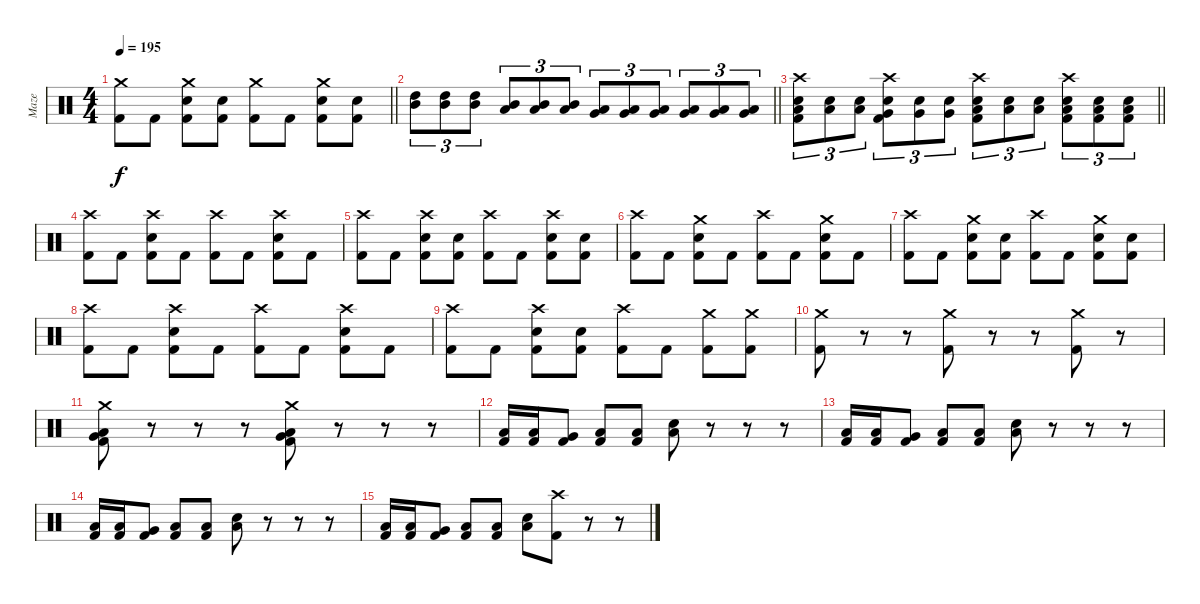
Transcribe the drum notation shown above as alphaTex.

\track ("Maze" "Maze") {instrument percussion}
\staff
\articulation defaults
\ts (4 4)
\tempo 195
\clef neutral
\barLineRight lightlight
\ks c
("Crash medium (hit)" "Kick (hit) 2").8{dy f} "Kick (hit) 2".8 ("Snare (hit) 2" "Crash medium (hit)" "Kick (hit) 2").8 ("Snare (hit) 2" "Kick (hit) 2").8 ("Crash medium (hit)" "Kick (hit) 2").8 "Kick (hit) 2".8 ("Snare (hit) 2" "Crash medium (hit)" "Kick (hit) 2").8 ("Snare (hit) 2" "Kick (hit) 2").8 |
\barLineRight lightlight
("High Tom (hit)" "Mid Tom (hit)").8{tu (3 2)} ("High Tom (hit)" "Mid Tom (hit)").8{tu (3 2)} ("High Tom (hit)" "Mid Tom (hit)").8{tu (3 2)} ("Mid Tom (hit)" "Low Tom (hit)").8{tu (3 2)} ("Mid Tom (hit)" "Low Tom (hit)").8{tu (3 2)} ("Mid Tom (hit)" "Low Tom (hit)").8{tu (3 2)} ("Low Tom (hit)" "Very Low Tom (hit)").8{tu (3 2)} ("Low Tom (hit)" "Very Low Tom (hit)").8{tu (3 2)} ("Low Tom (hit)" "Very Low Tom (hit)").8{tu (3 2)} ("Very Low Tom (hit)" "Low Floor Tom (hit)").8{tu (3 2)} ("Very Low Tom (hit)" "Low Floor Tom (hit)").8{tu (3 2)} ("Very Low Tom (hit)" "Low Floor Tom (hit)").8{tu (3 2)} |
\barLineRight lightlight
("Crash high (hit)" "Low Tom (hit)" "Snare (hit) 2" "Kick (hit) 2").8{tu (3 2)} ("Low Tom (hit)" "Snare (hit) 2").8{tu (3 2)} ("Low Tom (hit)" "Snare (hit) 2").8{tu (3 2)} ("Crash high (hit)" "Very Low Tom (hit)" "Snare (hit) 2" "Kick (hit) 2").8{tu (3 2)} ("Very Low Tom (hit)" "Snare (hit) 2").8{tu (3 2)} ("Very Low Tom (hit)" "Snare (hit) 2").8{tu (3 2)} ("Crash high (hit)" "Low Floor Tom (hit)" "Snare (hit) 2" "Kick (hit) 2").8{tu (3 2)} ("Low Floor Tom (hit)" "Snare (hit) 2").8{tu (3 2)} ("Low Floor Tom (hit)" "Snare (hit) 2").8{tu (3 2)} ("Crash high (hit)" "Low Floor Tom (hit)" "Snare (hit) 2" "Kick (hit) 2").8{tu (3 2)} ("Low Floor Tom (hit)" "Snare (hit) 2" "Kick (hit) 2").8{tu (3 2)} ("Low Floor Tom (hit)" "Snare (hit) 2" "Kick (hit) 2").8{tu (3 2)} |
("Crash high (hit)" "Kick (hit) 2").8 "Kick (hit) 2".8 ("Snare (hit) 2" "Crash high (hit)" "Kick (hit) 2").8 "Kick (hit) 2".8 ("Crash high (hit)" "Kick (hit) 2").8 "Kick (hit) 2".8 ("Snare (hit) 2" "Crash high (hit)" "Kick (hit) 2").8 "Kick (hit) 2".8 |
("Crash high (hit)" "Kick (hit) 2").8 "Kick (hit) 2".8 ("Snare (hit) 2" "Crash high (hit)" "Kick (hit) 2").8 ("Snare (hit) 2" "Kick (hit) 2").8 ("Crash high (hit)" "Kick (hit) 2").8 "Kick (hit) 2".8 ("Snare (hit) 2" "Crash high (hit)" "Kick (hit) 2").8 ("Snare (hit) 2" "Kick (hit) 2").8 |
("Crash high (hit)" "Kick (hit) 2").8 "Kick (hit) 2".8 ("Snare (hit) 2" "Crash medium (hit)" "Kick (hit) 2").8 "Kick (hit) 2".8 ("Crash high (hit)" "Kick (hit) 2").8 "Kick (hit) 2".8 ("Snare (hit) 2" "Crash medium (hit)" "Kick (hit) 2").8 "Kick (hit) 2".8 |
("Crash high (hit)" "Kick (hit) 2").8 "Kick (hit) 2".8 ("Snare (hit) 2" "Crash medium (hit)" "Kick (hit) 2").8 ("Snare (hit) 2" "Kick (hit) 2").8 ("Crash high (hit)" "Kick (hit) 2").8 "Kick (hit) 2".8 ("Snare (hit) 2" "Crash medium (hit)" "Kick (hit) 2").8 ("Snare (hit) 2" "Kick (hit) 2").8 |
("Crash high (hit)" "Kick (hit) 2").8 "Kick (hit) 2".8 ("Snare (hit) 2" "Crash high (hit)" "Kick (hit) 2").8 "Kick (hit) 2".8 ("Crash high (hit)" "Kick (hit) 2").8 "Kick (hit) 2".8 ("Snare (hit) 2" "Crash high (hit)" "Kick (hit) 2").8 "Kick (hit) 2".8 |
("Crash high (hit)" "Kick (hit) 2").8 "Kick (hit) 2".8 ("Snare (hit) 2" "Crash high (hit)" "Kick (hit) 2").8 ("Snare (hit) 2" "Kick (hit) 2").8 ("Crash high (hit)" "Kick (hit) 2").8 "Kick (hit) 2".8 ("Crash medium (hit)" "Kick (hit) 2").8 ("Crash medium (hit)" "Kick (hit) 2").8 |
("Crash medium (hit)" "Kick (hit) 2").8 r.8 r.8 ("Crash medium (hit)" "Kick (hit) 2").8 r.8 r.8 ("Crash medium (hit)" "Kick (hit) 2").8 r.8 |
("Crash medium (hit)" "Very Low Tom (hit)" "Low Floor Tom (hit)" "Kick (hit) 2").8 r.8 r.8 r.8 ("Crash medium (hit)" "Very Low Tom (hit)" "Low Floor Tom (hit)" "Kick (hit) 2").8 r.8 r.8 r.8 |
("Low Tom (hit)" "Kick (hit) 2").16 ("Low Tom (hit)" "Kick (hit) 2").16 ("Very Low Tom (hit)" "Kick (hit) 2").8 ("Low Floor Tom (hit)" "Kick (hit) 2").8 ("Low Floor Tom (hit)" "Kick (hit) 2").8 ("Snare (hit) 2" "Low Tom (hit)").8 r.8 r.8 r.8 |
("Low Tom (hit)" "Kick (hit) 2").16 ("Low Tom (hit)" "Kick (hit) 2").16 ("Very Low Tom (hit)" "Kick (hit) 2").8 ("Low Floor Tom (hit)" "Kick (hit) 2").8 ("Low Floor Tom (hit)" "Kick (hit) 2").8 ("Snare (hit) 2" "Low Tom (hit)").8 r.8 r.8 r.8 |
("Low Tom (hit)" "Kick (hit) 2").16 ("Low Tom (hit)" "Kick (hit) 2").16 ("Very Low Tom (hit)" "Kick (hit) 2").8 ("Low Floor Tom (hit)" "Kick (hit) 2").8 ("Low Floor Tom (hit)" "Kick (hit) 2").8 ("Snare (hit) 2" "Low Tom (hit)").8 r.8 r.8 r.8 |
("Low Tom (hit)" "Kick (hit) 2").16 ("Low Tom (hit)" "Kick (hit) 2").16 ("Very Low Tom (hit)" "Kick (hit) 2").8 ("Low Floor Tom (hit)" "Kick (hit) 2").8 ("Low Floor Tom (hit)" "Kick (hit) 2").8 ("Snare (hit) 2" "Low Tom (hit)").8 ("Crash high (hit)" "Kick (hit) 2").8 r.8 r.8
